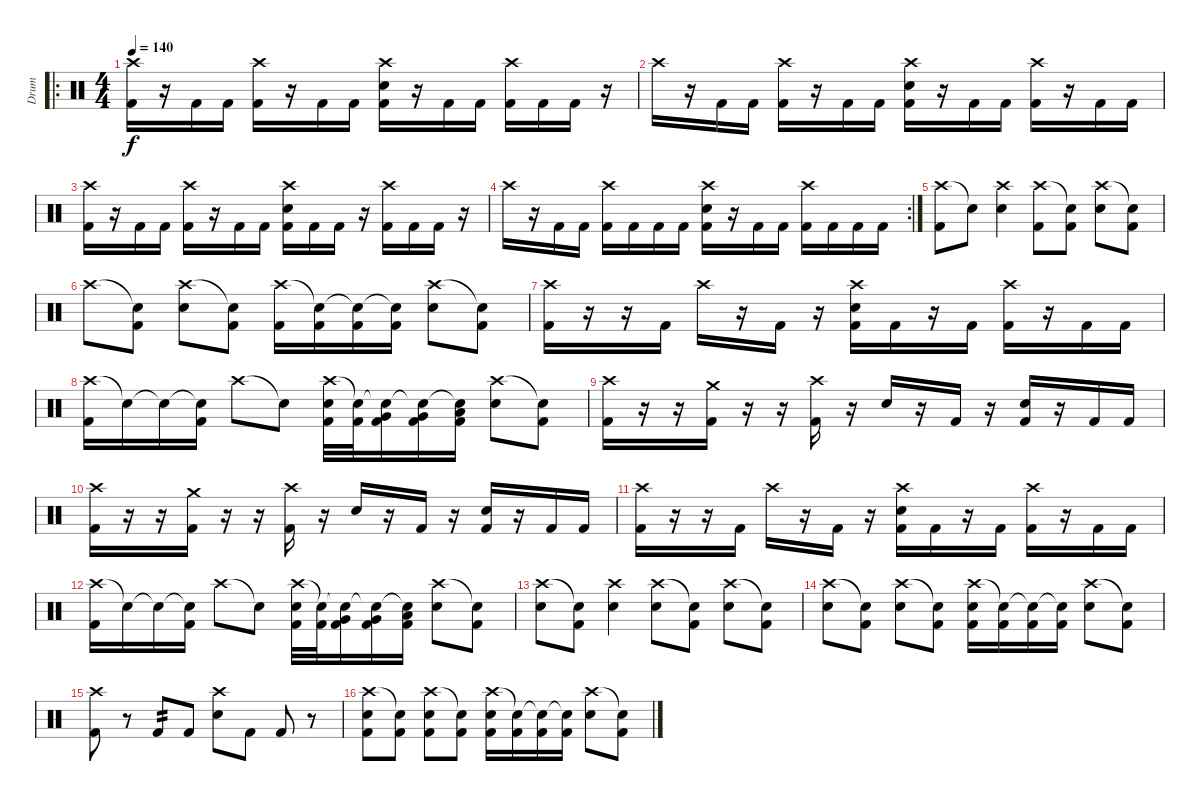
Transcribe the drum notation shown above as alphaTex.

\track ("Drum" "Drum") {instrument percussion}
\staff {score}
\articulation defaults
\ro
\ts (4 4)
\tempo 140
\clef neutral
\ks c
("Crash high (hit)" "Kick (hit) 2").16{dy f} r.16 "Kick (hit) 2".16 "Kick (hit) 2".16 ("Crash high (hit)" "Kick (hit) 2").16 r.16 "Kick (hit) 2".16 "Kick (hit) 2".16 ("Crash high (hit)" "Electric Snare (hit)" "Kick (hit) 2").16 r.16 "Kick (hit) 2".16 "Kick (hit) 2".16 ("Crash high (hit)" "Kick (hit) 2").16 "Kick (hit) 2".16 "Kick (hit) 2".16 r.16 |
"Crash high (hit)".16 r.16 "Kick (hit) 2".16 "Kick (hit) 2".16 ("Crash high (hit)" "Kick (hit) 2").16 r.16 "Kick (hit) 2".16 "Kick (hit) 2".16 ("Crash high (hit)" "Electric Snare (hit)" "Kick (hit) 2").16 r.16 "Kick (hit) 2".16 "Kick (hit) 2".16 ("Crash high (hit)" "Kick (hit) 2").16 r.16 "Kick (hit) 2".16 "Kick (hit) 2".16 |
("Crash high (hit)" "Kick (hit) 2").16 r.16 "Kick (hit) 2".16 "Kick (hit) 2".16 ("Crash high (hit)" "Kick (hit) 2").16 r.16 "Kick (hit) 2".16 "Kick (hit) 2".16 ("Crash high (hit)" "Electric Snare (hit)" "Kick (hit) 2").16 "Kick (hit) 2".16 "Kick (hit) 2".16 r.16 ("Crash high (hit)" "Kick (hit) 2").16 "Kick (hit) 2".16 "Kick (hit) 2".16 r.16 |
\rc 2 "Crash high (hit)".16
r.16 "Kick (hit) 2".16 "Kick (hit) 2".16 ("Crash high (hit)" "Kick (hit) 2").16 "Kick (hit) 2".16 "Kick (hit) 2".16 "Kick (hit) 2".16 ("Crash high (hit)" "Electric Snare (hit)" "Kick (hit) 2").16 r.16 "Kick (hit) 2".16 "Kick (hit) 2".16 ("Crash high (hit)" "Kick (hit) 2").16 "Kick (hit) 2".16 "Kick (hit) 2".16 "Kick (hit) 2".16 |
("Crash high (hit)" "Kick (hit) 2").8 "Snare (hit)"{t}.8 ("Crash high (hit)" "Electric Snare (hit)").4 ("Crash high (hit)" "Kick (hit) 2").8 ("Snare (hit)"{t} "Kick (hit) 2").8 ("Crash high (hit)" "Electric Snare (hit)").8 ("Snare (hit)"{t} "Kick (hit) 2").8 |
"Crash high (hit)".8 ("Snare (hit)"{t} "Kick (hit) 2").8 ("Crash high (hit)" "Electric Snare (hit)").8 ("Snare (hit)"{t} "Kick (hit) 2").8 ("Crash high (hit)" "Kick (hit) 2").16 ("Snare (hit)"{t} "Kick (hit) 2").16 ("Snare (hit)"{t} "Kick (hit) 2").16 ("Snare (hit)"{t} "Kick (hit) 2").16 ("Crash high (hit)" "Electric Snare (hit)").8 ("Snare (hit)"{t} "Kick (hit) 2").8 |
("Crash high (hit)" "Kick (hit) 2").16 r.16 r.16 "Kick (hit) 2".16 "Crash high (hit)".16 r.16 "Kick (hit) 2".16 r.16 ("Crash high (hit)" "Electric Snare (hit)" "Kick (hit) 2").16 "Kick (hit) 2".16 r.16 "Kick (hit) 2".16 ("Crash high (hit)" "Kick (hit) 2").16 r.16 "Kick (hit) 2".16 "Kick (hit) 2".16 |
("Crash high (hit)" "Kick (hit) 2").16 "Snare (hit)"{t}.16 "Snare (hit)"{t}.16 ("Snare (hit)"{t} "Kick (hit) 2").16 "Crash high (hit)".8 "Snare (hit)"{t}.8 ("Crash high (hit)" "Electric Snare (hit)" "Kick (hit) 2").32 ("Snare (hit)"{t} "Kick (hit) 2").32 ("Snare (hit)"{t} "Very Low Tom (hit)" "Kick (hit) 2").16 ("Snare (hit)"{t} "Very Low Tom (hit)" "Kick (hit) 2").16 ("Snare (hit)"{t} "Low Floor Tom (hit)" "Kick (hit) 2").16 ("Crash high (hit)" "Electric Snare (hit)").8 ("Snare (hit)"{t} "Kick (hit) 2").8 |
("Crash high (hit)" "Kick (hit) 2").16 r.16 r.16 ("Crash medium (hit)" "Kick (hit) 2").16 r.16 r.16 ("Crash high (hit)" "Kick (hit) 2").16 r.16 "Electric Snare (hit)".16 r.16 "Kick (hit) 2".16 r.16 ("Electric Snare (hit)" "Kick (hit) 2").16 r.16 "Kick (hit) 2".16 "Kick (hit) 2".16 |
("Crash high (hit)" "Kick (hit) 2").16 r.16 r.16 ("Crash medium (hit)" "Kick (hit) 2").16 r.16 r.16 ("Crash high (hit)" "Kick (hit) 2").16 r.16 "Electric Snare (hit)".16 r.16 "Kick (hit) 2".16 r.16 ("Electric Snare (hit)" "Kick (hit) 2").16 r.16 "Kick (hit) 2".16 "Kick (hit) 2".16 |
("Crash high (hit)" "Kick (hit) 2").16 r.16 r.16 "Kick (hit) 2".16 "Crash high (hit)".16 r.16 "Kick (hit) 2".16 r.16 ("Crash high (hit)" "Electric Snare (hit)" "Kick (hit) 2").16 "Kick (hit) 2".16 r.16 "Kick (hit) 2".16 ("Crash high (hit)" "Kick (hit) 2").16 r.16 "Kick (hit) 2".16 "Kick (hit) 2".16 |
("Crash high (hit)" "Kick (hit) 2").16 "Snare (hit)"{t}.16 "Snare (hit)"{t}.16 ("Snare (hit)"{t} "Kick (hit) 2").16 "Crash high (hit)".8 "Snare (hit)"{t}.8 ("Crash high (hit)" "Electric Snare (hit)" "Kick (hit) 2").32 ("Snare (hit)"{t} "Kick (hit) 2").32 ("Snare (hit)"{t} "Very Low Tom (hit)" "Kick (hit) 2").16 ("Snare (hit)"{t} "Very Low Tom (hit)" "Kick (hit) 2").16 ("Snare (hit)"{t} "Low Floor Tom (hit)" "Kick (hit) 2").16 ("Crash high (hit)" "Electric Snare (hit)").8 ("Snare (hit)"{t} "Kick (hit) 2").8 |
("Crash high (hit)" "Electric Snare (hit)").8 ("Snare (hit)"{t} "Kick (hit) 2").8 ("Crash high (hit)" "Electric Snare (hit)").4 ("Crash high (hit)" "Electric Snare (hit)").8 ("Snare (hit)"{t} "Kick (hit) 2").8 ("Crash high (hit)" "Electric Snare (hit)").8 ("Snare (hit)"{t} "Kick (hit) 2").8 |
("Crash high (hit)" "Electric Snare (hit)").8 ("Snare (hit)"{t} "Kick (hit) 2").8 ("Crash high (hit)" "Electric Snare (hit)").8 ("Snare (hit)"{t} "Kick (hit) 2").8 ("Crash high (hit)" "Electric Snare (hit)" "Kick (hit) 2").16 ("Snare (hit)"{t} "Kick (hit) 2").16 ("Snare (hit)"{t} "Kick (hit) 2").16 ("Snare (hit)"{t} "Kick (hit) 2").16 ("Crash high (hit)" "Electric Snare (hit)").8 ("Snare (hit)"{t} "Kick (hit) 2").8 |
("Crash high (hit)" "Kick (hit) 2").8 r.8 "Kick (hit) 2".8{tp 2} "Kick (hit) 2".8 ("Crash high (hit)" "Electric Snare (hit)").8 "Kick (hit) 2".8 "Kick (hit) 2".8 r.8 |
("Crash high (hit)" "Electric Snare (hit)" "Kick (hit) 2").8 ("Snare (hit)"{t} "Kick (hit) 2").8 ("Crash high (hit)" "Electric Snare (hit)" "Kick (hit) 2").8 ("Snare (hit)"{t} "Kick (hit) 2").8 ("Crash high (hit)" "Electric Snare (hit)" "Kick (hit) 2").16 ("Snare (hit)"{t} "Kick (hit) 2").16 ("Snare (hit)"{t} "Kick (hit) 2").16 ("Snare (hit)"{t} "Kick (hit) 2").16 ("Crash high (hit)" "Electric Snare (hit)").8 ("Snare (hit)"{t} "Kick (hit) 2").8
